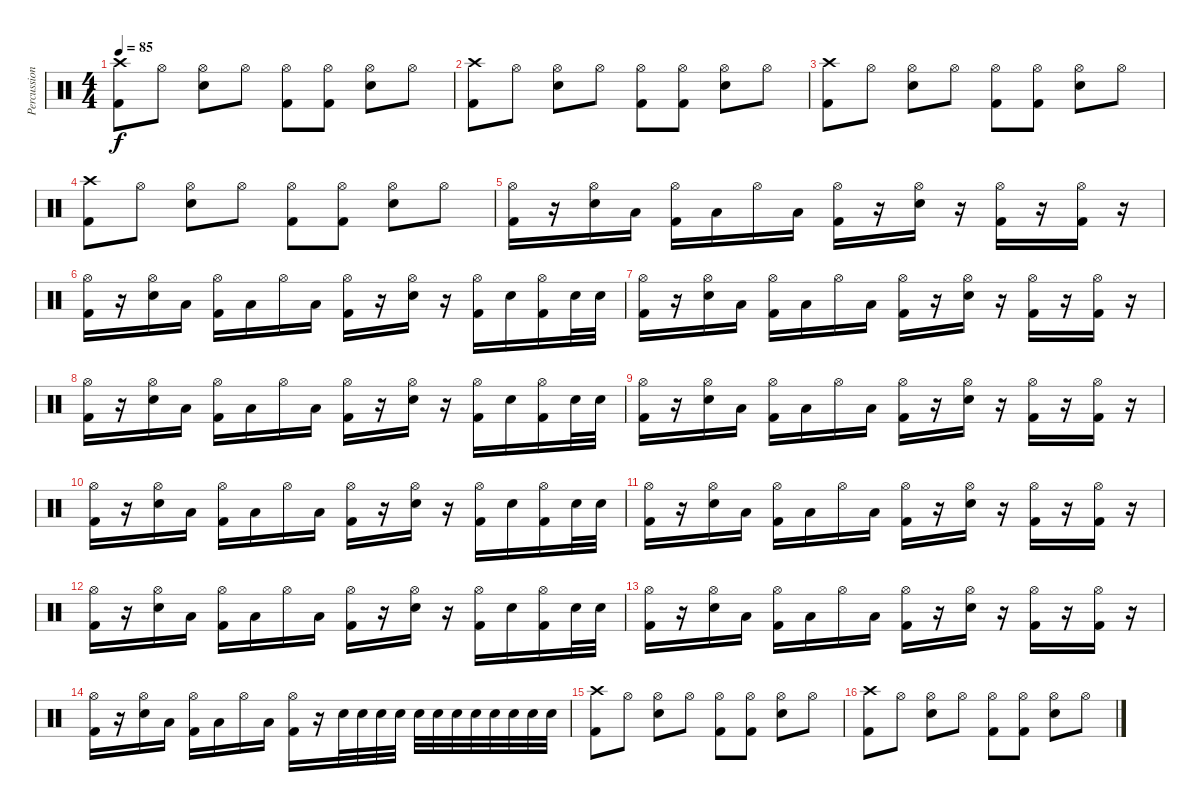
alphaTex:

\track ("Percussion" "Percussion") {instrument percussion}
\staff {score}
\articulation defaults
\ts (4 4)
\tempo 85
\clef neutral
\ks c
("Crash high (hit)" "Kick (hit) 2").8{dy f} "Hi-Hat (open)".8 ("Hi-Hat (open)" "Snare (hit) 2").8 "Hi-Hat (open)".8 ("Hi-Hat (open)" "Kick (hit) 2").8 ("Hi-Hat (open)" "Kick (hit) 2").8 ("Hi-Hat (open)" "Snare (hit) 2").8 "Hi-Hat (open)".8 |
("Crash high (hit)" "Kick (hit) 2").8 "Hi-Hat (open)".8 ("Hi-Hat (open)" "Snare (hit) 2").8 "Hi-Hat (open)".8 ("Hi-Hat (open)" "Kick (hit) 2").8 ("Hi-Hat (open)" "Kick (hit) 2").8 ("Hi-Hat (open)" "Snare (hit) 2").8 "Hi-Hat (open)".8 |
("Crash high (hit)" "Kick (hit) 2").8 "Hi-Hat (open)".8 ("Hi-Hat (open)" "Snare (hit) 2").8 "Hi-Hat (open)".8 ("Hi-Hat (open)" "Kick (hit) 2").8 ("Hi-Hat (open)" "Kick (hit) 2").8 ("Hi-Hat (open)" "Snare (hit) 2").8 "Hi-Hat (open)".8 |
("Crash high (hit)" "Kick (hit) 2").8 "Hi-Hat (open)".8 ("Hi-Hat (open)" "Snare (hit) 2").8 "Hi-Hat (open)".8 ("Hi-Hat (open)" "Kick (hit) 2").8 ("Hi-Hat (open)" "Kick (hit) 2").8 ("Hi-Hat (open)" "Snare (hit) 2").8 "Hi-Hat (open)".8 |
("Hi-Hat (open)" "Kick (hit) 2").16 r.16 ("Hi-Hat (open)" "Snare (hit) 2").16 "Low Floor Tom (hit)".16 ("Hi-Hat (open)" "Kick (hit) 2").16 "Low Floor Tom (hit)".16 "Hi-Hat (open)".16 "Low Floor Tom (hit)".16 ("Hi-Hat (open)" "Kick (hit) 2").16 r.16 ("Hi-Hat (open)" "Snare (hit) 2").16 r.16 ("Hi-Hat (open)" "Kick (hit) 2").16 r.16 ("Hi-Hat (open)" "Kick (hit) 2").16 r.16 |
("Hi-Hat (open)" "Kick (hit) 2").16 r.16 ("Hi-Hat (open)" "Snare (hit) 2").16 "Low Floor Tom (hit)".16 ("Hi-Hat (open)" "Kick (hit) 2").16 "Low Floor Tom (hit)".16 "Hi-Hat (open)".16 "Low Floor Tom (hit)".16 ("Hi-Hat (open)" "Kick (hit) 2").16 r.16 ("Hi-Hat (open)" "Snare (hit) 2").16 r.16 ("Hi-Hat (open)" "Kick (hit) 2").16 "Snare (hit) 2".16 ("Hi-Hat (open)" "Kick (hit) 2").16 "Snare (hit) 2".32 "Snare (hit) 2".32 |
("Hi-Hat (open)" "Kick (hit) 2").16 r.16 ("Hi-Hat (open)" "Snare (hit) 2").16 "Low Floor Tom (hit)".16 ("Hi-Hat (open)" "Kick (hit) 2").16 "Low Floor Tom (hit)".16 "Hi-Hat (open)".16 "Low Floor Tom (hit)".16 ("Hi-Hat (open)" "Kick (hit) 2").16 r.16 ("Hi-Hat (open)" "Snare (hit) 2").16 r.16 ("Hi-Hat (open)" "Kick (hit) 2").16 r.16 ("Hi-Hat (open)" "Kick (hit) 2").16 r.16 |
("Hi-Hat (open)" "Kick (hit) 2").16 r.16 ("Hi-Hat (open)" "Snare (hit) 2").16 "Low Floor Tom (hit)".16 ("Hi-Hat (open)" "Kick (hit) 2").16 "Low Floor Tom (hit)".16 "Hi-Hat (open)".16 "Low Floor Tom (hit)".16 ("Hi-Hat (open)" "Kick (hit) 2").16 r.16 ("Hi-Hat (open)" "Snare (hit) 2").16 r.16 ("Hi-Hat (open)" "Kick (hit) 2").16 "Snare (hit) 2".16 ("Hi-Hat (open)" "Kick (hit) 2").16 "Snare (hit) 2".32 "Snare (hit) 2".32 |
("Hi-Hat (open)" "Kick (hit) 2").16 r.16 ("Hi-Hat (open)" "Snare (hit) 2").16 "Low Floor Tom (hit)".16 ("Hi-Hat (open)" "Kick (hit) 2").16 "Low Floor Tom (hit)".16 "Hi-Hat (open)".16 "Low Floor Tom (hit)".16 ("Hi-Hat (open)" "Kick (hit) 2").16 r.16 ("Hi-Hat (open)" "Snare (hit) 2").16 r.16 ("Hi-Hat (open)" "Kick (hit) 2").16 r.16 ("Hi-Hat (open)" "Kick (hit) 2").16 r.16 |
("Hi-Hat (open)" "Kick (hit) 2").16 r.16 ("Hi-Hat (open)" "Snare (hit) 2").16 "Low Floor Tom (hit)".16 ("Hi-Hat (open)" "Kick (hit) 2").16 "Low Floor Tom (hit)".16 "Hi-Hat (open)".16 "Low Floor Tom (hit)".16 ("Hi-Hat (open)" "Kick (hit) 2").16 r.16 ("Hi-Hat (open)" "Snare (hit) 2").16 r.16 ("Hi-Hat (open)" "Kick (hit) 2").16 "Snare (hit) 2".16 ("Hi-Hat (open)" "Kick (hit) 2").16 "Snare (hit) 2".32 "Snare (hit) 2".32 |
("Hi-Hat (open)" "Kick (hit) 2").16 r.16 ("Hi-Hat (open)" "Snare (hit) 2").16 "Low Floor Tom (hit)".16 ("Hi-Hat (open)" "Kick (hit) 2").16 "Low Floor Tom (hit)".16 "Hi-Hat (open)".16 "Low Floor Tom (hit)".16 ("Hi-Hat (open)" "Kick (hit) 2").16 r.16 ("Hi-Hat (open)" "Snare (hit) 2").16 r.16 ("Hi-Hat (open)" "Kick (hit) 2").16 r.16 ("Hi-Hat (open)" "Kick (hit) 2").16 r.16 |
("Hi-Hat (open)" "Kick (hit) 2").16 r.16 ("Hi-Hat (open)" "Snare (hit) 2").16 "Low Floor Tom (hit)".16 ("Hi-Hat (open)" "Kick (hit) 2").16 "Low Floor Tom (hit)".16 "Hi-Hat (open)".16 "Low Floor Tom (hit)".16 ("Hi-Hat (open)" "Kick (hit) 2").16 r.16 ("Hi-Hat (open)" "Snare (hit) 2").16 r.16 ("Hi-Hat (open)" "Kick (hit) 2").16 "Snare (hit) 2".16 ("Hi-Hat (open)" "Kick (hit) 2").16 "Snare (hit) 2".32 "Snare (hit) 2".32 |
("Hi-Hat (open)" "Kick (hit) 2").16 r.16 ("Hi-Hat (open)" "Snare (hit) 2").16 "Low Floor Tom (hit)".16 ("Hi-Hat (open)" "Kick (hit) 2").16 "Low Floor Tom (hit)".16 "Hi-Hat (open)".16 "Low Floor Tom (hit)".16 ("Hi-Hat (open)" "Kick (hit) 2").16 r.16 ("Hi-Hat (open)" "Snare (hit) 2").16 r.16 ("Hi-Hat (open)" "Kick (hit) 2").16 r.16 ("Hi-Hat (open)" "Kick (hit) 2").16 r.16 |
("Hi-Hat (open)" "Kick (hit) 2").16 r.16 ("Hi-Hat (open)" "Snare (hit) 2").16 "Low Floor Tom (hit)".16 ("Hi-Hat (open)" "Kick (hit) 2").16 "Low Floor Tom (hit)".16 "Hi-Hat (open)".16 "Low Floor Tom (hit)".16 ("Hi-Hat (open)" "Kick (hit) 2").16 r.16 "Snare (hit) 2".32 "Snare (hit) 2".32 "Snare (hit) 2".32 "Snare (hit) 2".32 "Snare (hit) 2".32 "Snare (hit) 2".32 "Snare (hit) 2".32 "Snare (hit) 2".32 "Snare (hit) 2".32 "Snare (hit) 2".32 "Snare (hit) 2".32 "Snare (hit) 2".32 |
("Crash high (hit)" "Kick (hit) 2").8 "Hi-Hat (open)".8 ("Hi-Hat (open)" "Snare (hit) 2").8 "Hi-Hat (open)".8 ("Hi-Hat (open)" "Kick (hit) 2").8 ("Hi-Hat (open)" "Kick (hit) 2").8 ("Hi-Hat (open)" "Snare (hit) 2").8 "Hi-Hat (open)".8 |
("Crash high (hit)" "Kick (hit) 2").8 "Hi-Hat (open)".8 ("Hi-Hat (open)" "Snare (hit) 2").8 "Hi-Hat (open)".8 ("Hi-Hat (open)" "Kick (hit) 2").8 ("Hi-Hat (open)" "Kick (hit) 2").8 ("Hi-Hat (open)" "Snare (hit) 2").8 "Hi-Hat (open)".8
